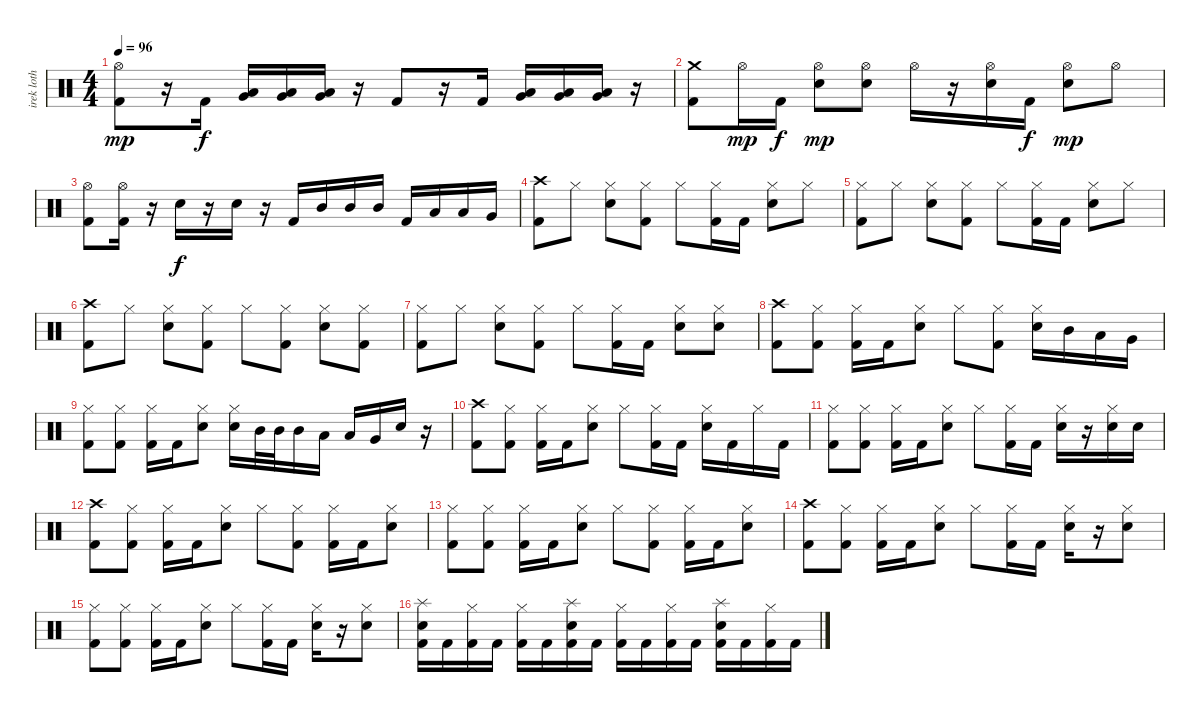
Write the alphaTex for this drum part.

\track ("irek loth" "irek loth") {instrument percussion}
\staff {score}
\articulation defaults
\ts (4 4)
\tempo 96
\clef neutral
\ks c
("Hi-Hat (open)" "Kick (hit) 2").8{dy mp} r.16 "Kick (hit) 2".16{dy f} ("Low Tom (hit)" "Very Low Tom (hit)").16 ("Low Tom (hit)" "Very Low Tom (hit)").16 ("Very Low Tom (hit)" "Low Floor Tom (hit)").16 r.16 "Kick (hit) 2".8 r.16 "Kick (hit) 2".16 ("Low Tom (hit)" "Very Low Tom (hit)").16 ("Low Tom (hit)" "Very Low Tom (hit)").16 ("Very Low Tom (hit)" "Low Floor Tom (hit)").16 r.16 |
("Crash medium (hit)" "Kick (hit) 2").8 "Hi-Hat (open)".16{dy mp} "Kick (hit) 2".16{dy f} ("Snare (hit) 2" "Hi-Hat (open)").8{dy mp} ("Snare (hit) 2" "Hi-Hat (open)").8 "Hi-Hat (open)".16 r.16 ("Snare (hit) 2" "Hi-Hat (open)").16 "Kick (hit) 2".16{dy f} ("Snare (hit) 2" "Hi-Hat (open)").8{dy mp} "Hi-Hat (open)".8 |
("Hi-Hat (open)" "Kick (hit) 2").8 ("Hi-Hat (open)" "Kick (hit) 2").16 r.16 "Snare (hit) 2".16{dy f} r.16 "Snare (hit) 2".16 r.16 "Kick (hit) 2".16 "Mid Tom (hit)".16 "Mid Tom (hit)".16 "Mid Tom (hit)".16 "Kick (hit) 2".16 "Low Tom (hit)".16 "Low Tom (hit)".16 "Very Low Tom (hit)".16 |
("Crash high (hit)" "Kick (hit) 2").8 "Hi-Hat (closed)".8 ("Snare (hit) 2" "Hi-Hat (closed)").8 ("Hi-Hat (closed)" "Kick (hit) 2").8 "Hi-Hat (closed)".8 ("Hi-Hat (closed)" "Kick (hit) 2").16 "Kick (hit) 2".16 ("Snare (hit) 2" "Hi-Hat (closed)").8 "Hi-Hat (closed)".8 |
("Hi-Hat (closed)" "Kick (hit) 2").8 "Hi-Hat (closed)".8 ("Snare (hit) 2" "Hi-Hat (closed)").8 ("Hi-Hat (closed)" "Kick (hit) 2").8 "Hi-Hat (closed)".8 ("Hi-Hat (closed)" "Kick (hit) 2").16 "Kick (hit) 2".16 ("Snare (hit) 2" "Hi-Hat (closed)").8 "Hi-Hat (closed)".8 |
("Crash high (hit)" "Kick (hit) 2").8 "Hi-Hat (closed)".8 ("Snare (hit) 2" "Hi-Hat (closed)").8 ("Hi-Hat (closed)" "Kick (hit) 2").8 "Hi-Hat (closed)".8 ("Hi-Hat (closed)" "Kick (hit) 2").8 ("Snare (hit) 2" "Hi-Hat (closed)").8 ("Hi-Hat (closed)" "Kick (hit) 2").8 |
("Hi-Hat (closed)" "Kick (hit) 2").8 "Hi-Hat (closed)".8 ("Snare (hit) 2" "Hi-Hat (closed)").8 ("Hi-Hat (closed)" "Kick (hit) 2").8 "Hi-Hat (closed)".8 ("Hi-Hat (closed)" "Kick (hit) 2").16 "Kick (hit) 2".16 ("Snare (hit) 2" "Hi-Hat (closed)").8 ("Snare (hit) 2" "Hi-Hat (closed)").8 |
("Crash high (hit)" "Kick (hit) 2").8 ("Hi-Hat (closed)" "Kick (hit) 2").8 ("Hi-Hat (closed)" "Kick (hit) 2").16 "Kick (hit) 2".16 ("Snare (hit) 2" "Hi-Hat (closed)").8 "Hi-Hat (closed)".8 ("Hi-Hat (closed)" "Kick (hit) 2").8 ("Snare (hit) 2" "Hi-Hat (closed)").16 "Mid Tom (hit)".16 "Low Tom (hit)".16 "Very Low Tom (hit)".16 |
("Hi-Hat (closed)" "Kick (hit) 2").8 ("Hi-Hat (closed)" "Kick (hit) 2").8 ("Hi-Hat (closed)" "Kick (hit) 2").16 "Kick (hit) 2".16 ("Snare (hit) 2" "Hi-Hat (closed)").8 ("Snare (hit) 2" "Hi-Hat (closed)").16 "Mid Tom (hit)".32 "Mid Tom (hit)".32 "Mid Tom (hit)".16 "Low Tom (hit)".16 "Low Tom (hit)".16 "Very Low Tom (hit)".16 "Snare (hit) 2".16 r.16 |
("Crash high (hit)" "Kick (hit) 2").8 ("Hi-Hat (closed)" "Kick (hit) 2").8 ("Hi-Hat (closed)" "Kick (hit) 2").16 "Kick (hit) 2".16 ("Snare (hit) 2" "Hi-Hat (closed)").8 "Hi-Hat (closed)".8 ("Hi-Hat (closed)" "Kick (hit) 2").16 "Kick (hit) 2".16 ("Snare (hit) 2" "Hi-Hat (closed)").16 "Kick (hit) 2".16 "Hi-Hat (closed)".16 "Kick (hit) 2".16 |
("Hi-Hat (closed)" "Kick (hit) 2").8 ("Hi-Hat (closed)" "Kick (hit) 2").8 ("Hi-Hat (closed)" "Kick (hit) 2").16 "Kick (hit) 2".16 ("Snare (hit) 2" "Hi-Hat (closed)").8 "Hi-Hat (closed)".8 ("Hi-Hat (closed)" "Kick (hit) 2").16 "Kick (hit) 2".16 ("Snare (hit) 2" "Hi-Hat (closed)").16 r.16 ("Snare (hit) 2" "Hi-Hat (closed)").16 "Snare (hit) 2".16 |
("Crash high (hit)" "Kick (hit) 2").8 ("Hi-Hat (closed)" "Kick (hit) 2").8 ("Hi-Hat (closed)" "Kick (hit) 2").16 "Kick (hit) 2".16 ("Snare (hit) 2" "Hi-Hat (closed)").8 "Hi-Hat (closed)".8 ("Hi-Hat (closed)" "Kick (hit) 2").8 ("Hi-Hat (closed)" "Kick (hit) 2").16 "Kick (hit) 2".16 ("Snare (hit) 2" "Hi-Hat (closed)").8 |
("Hi-Hat (closed)" "Kick (hit) 2").8 ("Hi-Hat (closed)" "Kick (hit) 2").8 ("Hi-Hat (closed)" "Kick (hit) 2").16 "Kick (hit) 2".16 ("Snare (hit) 2" "Hi-Hat (closed)").8 "Hi-Hat (closed)".8 ("Hi-Hat (closed)" "Kick (hit) 2").8 ("Hi-Hat (closed)" "Kick (hit) 2").16 "Kick (hit) 2".16 ("Snare (hit) 2" "Hi-Hat (closed)").8 |
("Crash high (hit)" "Kick (hit) 2").8 ("Hi-Hat (closed)" "Kick (hit) 2").8 ("Hi-Hat (closed)" "Kick (hit) 2").16 "Kick (hit) 2".16 ("Snare (hit) 2" "Hi-Hat (closed)").8 "Hi-Hat (closed)".8 ("Hi-Hat (closed)" "Kick (hit) 2").16 "Kick (hit) 2".16 ("Snare (hit) 2" "Hi-Hat (closed)").16 r.16 ("Snare (hit) 2" "Hi-Hat (closed)").8 |
("Hi-Hat (closed)" "Kick (hit) 2").8 ("Hi-Hat (closed)" "Kick (hit) 2").8 ("Hi-Hat (closed)" "Kick (hit) 2").16 "Kick (hit) 2".16 ("Snare (hit) 2" "Hi-Hat (closed)").8 "Hi-Hat (closed)".8 ("Hi-Hat (closed)" "Kick (hit) 2").16 "Kick (hit) 2".16 ("Snare (hit) 2" "Hi-Hat (closed)").16 r.16 ("Snare (hit) 2" "Hi-Hat (closed)").8 |
("Snare (hit) 2" "Splash (hit)" "Kick (hit) 2").16 "Kick (hit) 2".16 ("Hi-Hat (closed)" "Kick (hit) 2").16 "Kick (hit) 2".16 ("Hi-Hat (closed)" "Kick (hit) 2").16 "Kick (hit) 2".16 ("Snare (hit) 2" "Splash (hit)" "Kick (hit) 2").16 "Kick (hit) 2".16 ("Hi-Hat (closed)" "Kick (hit) 2").16 "Kick (hit) 2".16 ("Hi-Hat (closed)" "Kick (hit) 2").16 "Kick (hit) 2".16 ("Snare (hit) 2" "Splash (hit)" "Kick (hit) 2").16 "Kick (hit) 2".16 ("Hi-Hat (closed)" "Kick (hit) 2").16 "Kick (hit) 2".16
